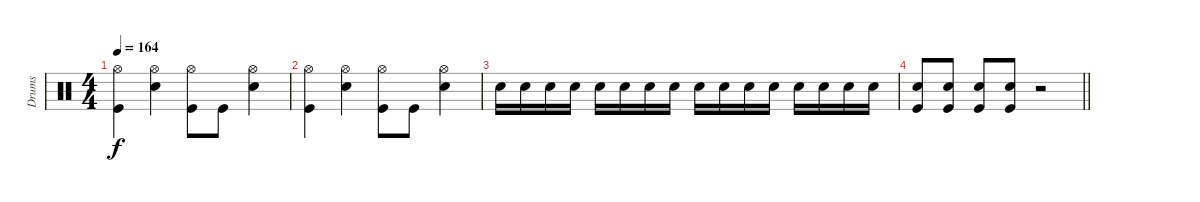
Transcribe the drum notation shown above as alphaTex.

\track ("Drums" "Drums") {instrument percussion}
\staff {score}
\articulation defaults
\ts (4 4)
\tempo 164
\clef neutral
\ks c
("Hi-Hat (open)" "Kick (hit)").4{dy f} ("Hi-Hat (open)" "Snare (hit) 2").4 ("Kick (hit)" "Hi-Hat (open)").8 "Kick (hit)".8 ("Hi-Hat (open)" "Snare (hit) 2").4 |
("Hi-Hat (open)" "Kick (hit)").4 ("Hi-Hat (open)" "Snare (hit) 2").4 ("Kick (hit)" "Hi-Hat (open)").8 "Kick (hit)".8 ("Hi-Hat (open)" "Snare (hit) 2").4 |
"Snare (hit) 2".16 "Snare (hit) 2".16 "Snare (hit) 2".16 "Snare (hit) 2".16 "Snare (hit) 2".16 "Snare (hit) 2".16 "Snare (hit) 2".16 "Snare (hit) 2".16 "Snare (hit) 2".16 "Snare (hit) 2".16 "Snare (hit) 2".16 "Snare (hit) 2".16 "Snare (hit) 2".16 "Snare (hit) 2".16 "Snare (hit) 2".16 "Snare (hit) 2".16 |
\barLineRight lightlight
("Snare (hit) 2" "Kick (hit)").8 ("Kick (hit)" "Snare (hit) 2").8 ("Snare (hit) 2" "Kick (hit)").8 ("Kick (hit)" "Snare (hit) 2").8 r.2
